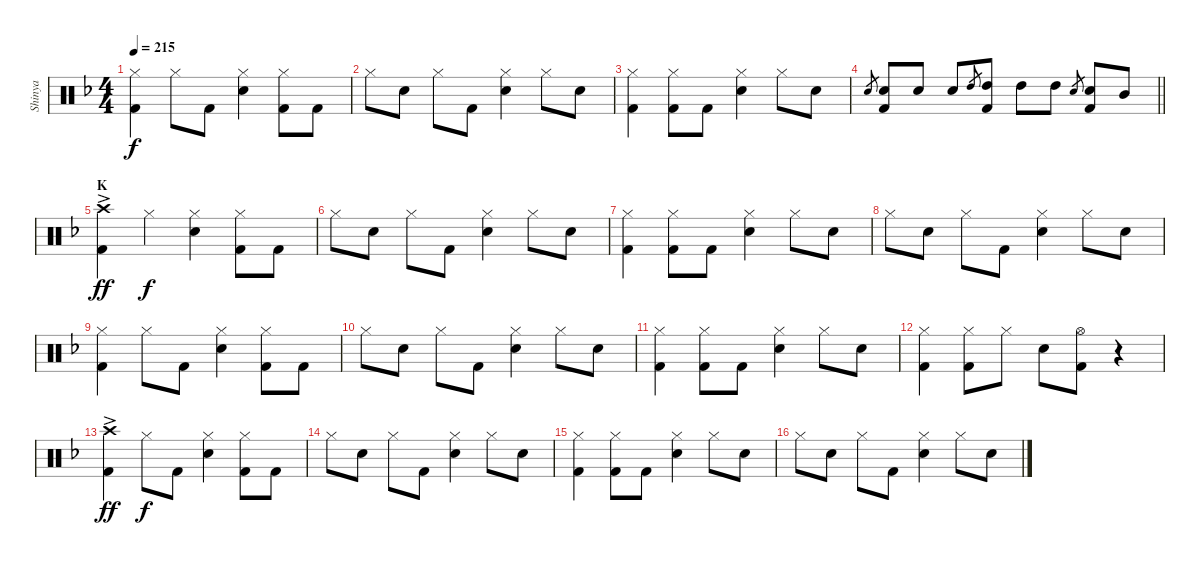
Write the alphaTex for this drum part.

\track ("Shinya" "Shinya") {instrument percussion}
\staff {score}
\articulation defaults
\ts (4 4)
\tempo 215
\clef neutral
\ks f
("Hi-Hat (closed)" "Kick (hit) 2").4{dy f} "Hi-Hat (closed)".8 "Kick (hit) 2".8 ("Hi-Hat (closed)" "Snare (hit) 2").4 ("Hi-Hat (closed)" "Kick (hit) 2").8 "Kick (hit) 2".8 |
"Hi-Hat (closed)".8 "Snare (hit) 2".8 "Hi-Hat (closed)".8 "Kick (hit) 2".8 ("Hi-Hat (closed)" "Snare (hit) 2").4 "Hi-Hat (closed)".8 "Snare (hit) 2".8 |
("Hi-Hat (closed)" "Kick (hit) 2").4 ("Hi-Hat (closed)" "Kick (hit) 2").8 "Kick (hit) 2".8 ("Hi-Hat (closed)" "Snare (hit) 2").4 "Hi-Hat (closed)".8 "Snare (hit) 2".8 |
\barLineRight lightlight "Snare (hit) 2".8{gr}
("Snare (hit) 2" "Kick (hit) 2").8 "Snare (hit) 2".8 "Snare (hit) 2".8 "High Tom (hit)".8{gr} ("High Tom (hit)" "Kick (hit) 2").8 "High Tom (hit)".8 "High Tom (hit)".8 "Snare (hit) 2".8{gr} ("Snare (hit) 2" "Kick (hit) 2").8 "Mid Tom (hit)".8 |
\section ("" "K")
("Crash high (hit)"{ac} "Kick (hit) 2").4{dy ff} "Hi-Hat (closed)".4{dy f} ("Hi-Hat (closed)" "Snare (hit) 2").4 ("Hi-Hat (closed)" "Kick (hit) 2").8 "Kick (hit) 2".8 |
"Hi-Hat (closed)".8 "Snare (hit) 2".8 "Hi-Hat (closed)".8 "Kick (hit) 2".8 ("Hi-Hat (closed)" "Snare (hit) 2").4 "Hi-Hat (closed)".8 "Snare (hit) 2".8 |
("Hi-Hat (closed)" "Kick (hit) 2").4 ("Hi-Hat (closed)" "Kick (hit) 2").8 "Kick (hit) 2".8 ("Hi-Hat (closed)" "Snare (hit) 2").4 "Hi-Hat (closed)".8 "Snare (hit) 2".8 |
"Hi-Hat (closed)".8 "Snare (hit) 2".8 "Hi-Hat (closed)".8 "Kick (hit) 2".8 ("Hi-Hat (closed)" "Snare (hit) 2").4 "Hi-Hat (closed)".8 "Snare (hit) 2".8 |
("Hi-Hat (closed)" "Kick (hit) 2").4 "Hi-Hat (closed)".8 "Kick (hit) 2".8 ("Hi-Hat (closed)" "Snare (hit) 2").4 ("Hi-Hat (closed)" "Kick (hit) 2").8 "Kick (hit) 2".8 |
"Hi-Hat (closed)".8 "Snare (hit) 2".8 "Hi-Hat (closed)".8 "Kick (hit) 2".8 ("Hi-Hat (closed)" "Snare (hit) 2").4 "Hi-Hat (closed)".8 "Snare (hit) 2".8 |
("Hi-Hat (closed)" "Kick (hit) 2").4 ("Hi-Hat (closed)" "Kick (hit) 2").8 "Kick (hit) 2".8 ("Hi-Hat (closed)" "Snare (hit) 2").4 "Hi-Hat (closed)".8 "Snare (hit) 2".8 |
("Hi-Hat (closed)" "Kick (hit) 2").4 ("Hi-Hat (closed)" "Kick (hit) 2").8 "Hi-Hat (closed)".8 "Snare (hit) 2".8 ("Hi-Hat (open)" "Kick (hit) 2").8 r.4 |
("Crash high (hit)"{ac} "Kick (hit) 2").4{dy ff} "Hi-Hat (closed)".8{dy f} "Kick (hit) 2".8 ("Hi-Hat (closed)" "Snare (hit) 2").4 ("Hi-Hat (closed)" "Kick (hit) 2").8 "Kick (hit) 2".8 |
"Hi-Hat (closed)".8 "Snare (hit) 2".8 "Hi-Hat (closed)".8 "Kick (hit) 2".8 ("Hi-Hat (closed)" "Snare (hit) 2").4 "Hi-Hat (closed)".8 "Snare (hit) 2".8 |
("Hi-Hat (closed)" "Kick (hit) 2").4 ("Hi-Hat (closed)" "Kick (hit) 2").8 "Kick (hit) 2".8 ("Hi-Hat (closed)" "Snare (hit) 2").4 "Hi-Hat (closed)".8 "Snare (hit) 2".8 |
"Hi-Hat (closed)".8 "Snare (hit) 2".8 "Hi-Hat (closed)".8 "Kick (hit) 2".8 ("Hi-Hat (closed)" "Snare (hit) 2").4 "Hi-Hat (closed)".8 "Snare (hit) 2".8
